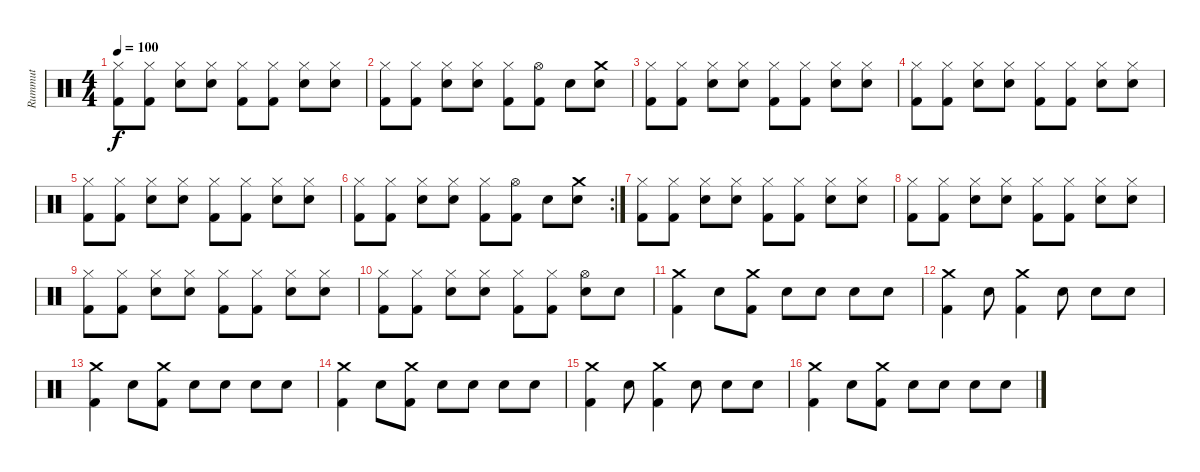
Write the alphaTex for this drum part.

\track ("Rummut" "Rummut") {instrument percussion}
\staff {score}
\articulation defaults
\ts (4 4)
\tempo 100
\clef neutral
\ks c
("Hi-Hat (closed)" "Kick (hit) 2").8{dy f} ("Hi-Hat (closed)" "Kick (hit) 2").8 ("Hi-Hat (closed)" "Snare (hit) 2").8 ("Hi-Hat (closed)" "Snare (hit) 2").8 ("Hi-Hat (closed)" "Kick (hit) 2").8 ("Hi-Hat (closed)" "Kick (hit) 2").8 ("Hi-Hat (closed)" "Snare (hit) 2").8 ("Hi-Hat (closed)" "Snare (hit) 2").8 |
("Hi-Hat (closed)" "Kick (hit) 2").8 ("Hi-Hat (closed)" "Kick (hit) 2").8 ("Hi-Hat (closed)" "Snare (hit) 2").8 ("Hi-Hat (closed)" "Snare (hit) 2").8 ("Hi-Hat (closed)" "Kick (hit) 2").8 ("Hi-Hat (open)" "Kick (hit) 2").8 "Snare (hit) 2".8 ("Crash medium (hit)" "Snare (hit) 2").8 |
("Hi-Hat (closed)" "Kick (hit) 2").8 ("Hi-Hat (closed)" "Kick (hit) 2").8 ("Hi-Hat (closed)" "Snare (hit) 2").8 ("Hi-Hat (closed)" "Snare (hit) 2").8 ("Hi-Hat (closed)" "Kick (hit) 2").8 ("Hi-Hat (closed)" "Kick (hit) 2").8 ("Hi-Hat (closed)" "Snare (hit) 2").8 ("Hi-Hat (closed)" "Snare (hit) 2").8 |
("Hi-Hat (closed)" "Kick (hit) 2").8 ("Hi-Hat (closed)" "Kick (hit) 2").8 ("Hi-Hat (closed)" "Snare (hit) 2").8 ("Hi-Hat (closed)" "Snare (hit) 2").8 ("Hi-Hat (closed)" "Kick (hit) 2").8 ("Hi-Hat (closed)" "Kick (hit) 2").8 ("Hi-Hat (closed)" "Snare (hit) 2").8 ("Hi-Hat (closed)" "Snare (hit) 2").8 |
("Hi-Hat (closed)" "Kick (hit) 2").8 ("Hi-Hat (closed)" "Kick (hit) 2").8 ("Hi-Hat (closed)" "Snare (hit) 2").8 ("Hi-Hat (closed)" "Snare (hit) 2").8 ("Hi-Hat (closed)" "Kick (hit) 2").8 ("Hi-Hat (closed)" "Kick (hit) 2").8 ("Hi-Hat (closed)" "Snare (hit) 2").8 ("Hi-Hat (closed)" "Snare (hit) 2").8 |
\rc 2
("Hi-Hat (closed)" "Kick (hit) 2").8 ("Hi-Hat (closed)" "Kick (hit) 2").8 ("Hi-Hat (closed)" "Snare (hit) 2").8 ("Hi-Hat (closed)" "Snare (hit) 2").8 ("Hi-Hat (closed)" "Kick (hit) 2").8 ("Hi-Hat (open)" "Kick (hit) 2").8 "Snare (hit) 2".8 ("Crash medium (hit)" "Snare (hit) 2").8 |
("Hi-Hat (closed)" "Kick (hit) 2").8 ("Hi-Hat (closed)" "Kick (hit) 2").8 ("Hi-Hat (closed)" "Snare (hit) 2").8 ("Hi-Hat (closed)" "Snare (hit) 2").8 ("Hi-Hat (closed)" "Kick (hit) 2").8 ("Hi-Hat (closed)" "Kick (hit) 2").8 ("Hi-Hat (closed)" "Snare (hit) 2").8 ("Hi-Hat (closed)" "Snare (hit) 2").8 |
("Hi-Hat (closed)" "Kick (hit) 2").8 ("Hi-Hat (closed)" "Kick (hit) 2").8 ("Hi-Hat (closed)" "Snare (hit) 2").8 ("Hi-Hat (closed)" "Snare (hit) 2").8 ("Hi-Hat (closed)" "Kick (hit) 2").8 ("Hi-Hat (closed)" "Kick (hit) 2").8 ("Hi-Hat (closed)" "Snare (hit) 2").8 ("Hi-Hat (closed)" "Snare (hit) 2").8 |
("Hi-Hat (closed)" "Kick (hit) 2").8 ("Hi-Hat (closed)" "Kick (hit) 2").8 ("Hi-Hat (closed)" "Snare (hit) 2").8 ("Hi-Hat (closed)" "Snare (hit) 2").8 ("Hi-Hat (closed)" "Kick (hit) 2").8 ("Hi-Hat (closed)" "Kick (hit) 2").8 ("Hi-Hat (closed)" "Snare (hit) 2").8 ("Hi-Hat (closed)" "Snare (hit) 2").8 |
("Hi-Hat (closed)" "Kick (hit) 2").8 ("Hi-Hat (closed)" "Kick (hit) 2").8 ("Hi-Hat (closed)" "Snare (hit) 2").8 ("Hi-Hat (closed)" "Snare (hit) 2").8 ("Hi-Hat (closed)" "Kick (hit) 2").8 ("Hi-Hat (closed)" "Kick (hit) 2").8 ("Hi-Hat (open)" "Snare (hit) 2").8 "Snare (hit) 2".8 |
("Crash medium (hit)" "Kick (hit) 2").4 "Snare (hit) 2".8 ("Crash medium (hit)" "Kick (hit) 2").8 "Snare (hit) 2".8 "Snare (hit) 2".8 "Snare (hit) 2".8 "Snare (hit) 2".8 |
("Crash medium (hit)" "Kick (hit) 2").4 "Snare (hit) 2".8 ("Crash medium (hit)" "Kick (hit) 2").4 "Snare (hit) 2".8 "Snare (hit) 2".8 "Snare (hit) 2".8 |
("Crash medium (hit)" "Kick (hit) 2").4 "Snare (hit) 2".8 ("Crash medium (hit)" "Kick (hit) 2").8 "Snare (hit) 2".8 "Snare (hit) 2".8 "Snare (hit) 2".8 "Snare (hit) 2".8 |
("Crash medium (hit)" "Kick (hit) 2").4 "Snare (hit) 2".8 ("Crash medium (hit)" "Kick (hit) 2").8 "Snare (hit) 2".8 "Snare (hit) 2".8 "Snare (hit) 2".8 "Snare (hit) 2".8 |
("Crash medium (hit)" "Kick (hit) 2").4 "Snare (hit) 2".8 ("Crash medium (hit)" "Kick (hit) 2").4 "Snare (hit) 2".8 "Snare (hit) 2".8 "Snare (hit) 2".8 |
("Crash medium (hit)" "Kick (hit) 2").4 "Snare (hit) 2".8 ("Crash medium (hit)" "Kick (hit) 2").8 "Snare (hit) 2".8 "Snare (hit) 2".8 "Snare (hit) 2".8 "Snare (hit) 2".8
